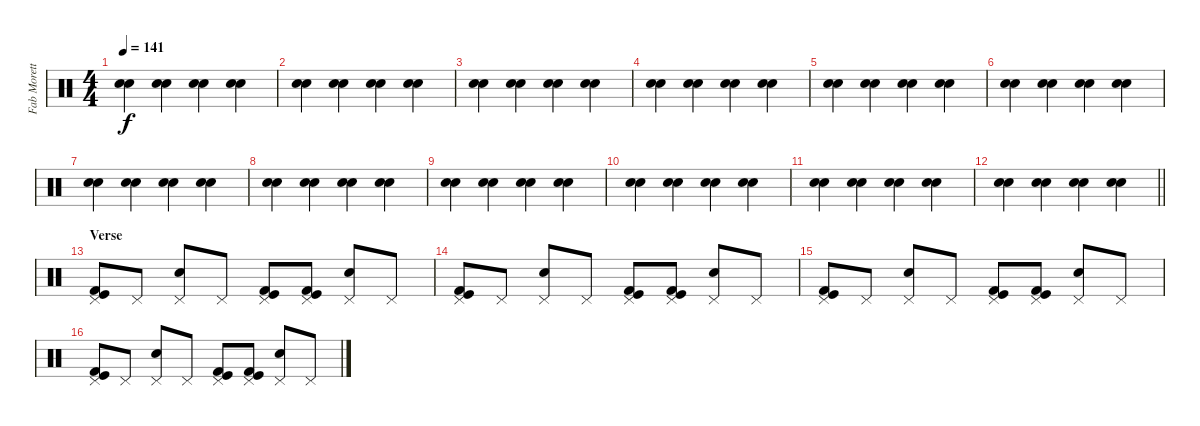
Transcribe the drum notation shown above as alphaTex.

\track ("Fab Moretti - Drums" "Fab Morett") {instrument percussion}
\staff {score}
\articulation defaults
\ts (4 4)
\tempo 141
\clef neutral
\ks c
("Snare (hit) 2" "Snare (hit) 2").4{dy f} ("Snare (hit) 2" "Snare (hit) 2").4 ("Snare (hit) 2" "Snare (hit) 2").4 ("Snare (hit) 2" "Snare (hit) 2").4 |
("Snare (hit) 2" "Snare (hit) 2").4 ("Snare (hit) 2" "Snare (hit) 2").4 ("Snare (hit) 2" "Snare (hit) 2").4 ("Snare (hit) 2" "Snare (hit) 2").4 |
("Snare (hit) 2" "Snare (hit) 2").4 ("Snare (hit) 2" "Snare (hit) 2").4 ("Snare (hit) 2" "Snare (hit) 2").4 ("Snare (hit) 2" "Snare (hit) 2").4 |
("Snare (hit) 2" "Snare (hit) 2").4 ("Snare (hit) 2" "Snare (hit) 2").4 ("Snare (hit) 2" "Snare (hit) 2").4 ("Snare (hit) 2" "Snare (hit) 2").4 |
("Snare (hit) 2" "Snare (hit) 2").4 ("Snare (hit) 2" "Snare (hit) 2").4 ("Snare (hit) 2" "Snare (hit) 2").4 ("Snare (hit) 2" "Snare (hit) 2").4 |
("Snare (hit) 2" "Snare (hit) 2").4 ("Snare (hit) 2" "Snare (hit) 2").4 ("Snare (hit) 2" "Snare (hit) 2").4 ("Snare (hit) 2" "Snare (hit) 2").4 |
("Snare (hit) 2" "Snare (hit) 2").4 ("Snare (hit) 2" "Snare (hit) 2").4 ("Snare (hit) 2" "Snare (hit) 2").4 ("Snare (hit) 2" "Snare (hit) 2").4 |
("Snare (hit) 2" "Snare (hit) 2").4 ("Snare (hit) 2" "Snare (hit) 2").4 ("Snare (hit) 2" "Snare (hit) 2").4 ("Snare (hit) 2" "Snare (hit) 2").4 |
("Snare (hit) 2" "Snare (hit) 2").4 ("Snare (hit) 2" "Snare (hit) 2").4 ("Snare (hit) 2" "Snare (hit) 2").4 ("Snare (hit) 2" "Snare (hit) 2").4 |
("Snare (hit) 2" "Snare (hit) 2").4 ("Snare (hit) 2" "Snare (hit) 2").4 ("Snare (hit) 2" "Snare (hit) 2").4 ("Snare (hit) 2" "Snare (hit) 2").4 |
("Snare (hit) 2" "Snare (hit) 2").4 ("Snare (hit) 2" "Snare (hit) 2").4 ("Snare (hit) 2" "Snare (hit) 2").4 ("Snare (hit) 2" "Snare (hit) 2").4 |
\barLineRight lightlight
("Snare (hit) 2" "Snare (hit) 2").4 ("Snare (hit) 2" "Snare (hit) 2").4 ("Snare (hit) 2" "Snare (hit) 2").4 ("Snare (hit) 2" "Snare (hit) 2").4 |
\section ("" "Verse")
("Pedal Hi-Hat (hit)" "Kick (hit) 2" "Kick (hit)").8 "Pedal Hi-Hat (hit)".8 ("Pedal Hi-Hat (hit)" "Snare (hit) 2").8 "Pedal Hi-Hat (hit)".8 ("Pedal Hi-Hat (hit)" "Kick (hit) 2" "Kick (hit)").8 ("Pedal Hi-Hat (hit)" "Kick (hit) 2" "Kick (hit)").8 ("Pedal Hi-Hat (hit)" "Snare (hit) 2").8 "Pedal Hi-Hat (hit)".8 |
("Pedal Hi-Hat (hit)" "Kick (hit) 2" "Kick (hit)").8 "Pedal Hi-Hat (hit)".8 ("Pedal Hi-Hat (hit)" "Snare (hit) 2").8 "Pedal Hi-Hat (hit)".8 ("Pedal Hi-Hat (hit)" "Kick (hit) 2" "Kick (hit)").8 ("Pedal Hi-Hat (hit)" "Kick (hit) 2" "Kick (hit)").8 ("Pedal Hi-Hat (hit)" "Snare (hit) 2").8 "Pedal Hi-Hat (hit)".8 |
("Pedal Hi-Hat (hit)" "Kick (hit) 2" "Kick (hit)").8 "Pedal Hi-Hat (hit)".8 ("Pedal Hi-Hat (hit)" "Snare (hit) 2").8 "Pedal Hi-Hat (hit)".8 ("Pedal Hi-Hat (hit)" "Kick (hit) 2" "Kick (hit)").8 ("Pedal Hi-Hat (hit)" "Kick (hit) 2" "Kick (hit)").8 ("Pedal Hi-Hat (hit)" "Snare (hit) 2").8 "Pedal Hi-Hat (hit)".8 |
("Pedal Hi-Hat (hit)" "Kick (hit) 2" "Kick (hit)").8 "Pedal Hi-Hat (hit)".8 ("Pedal Hi-Hat (hit)" "Snare (hit) 2").8 "Pedal Hi-Hat (hit)".8 ("Pedal Hi-Hat (hit)" "Kick (hit) 2" "Kick (hit)").8 ("Pedal Hi-Hat (hit)" "Kick (hit) 2" "Kick (hit)").8 ("Pedal Hi-Hat (hit)" "Snare (hit) 2").8 "Pedal Hi-Hat (hit)".8
